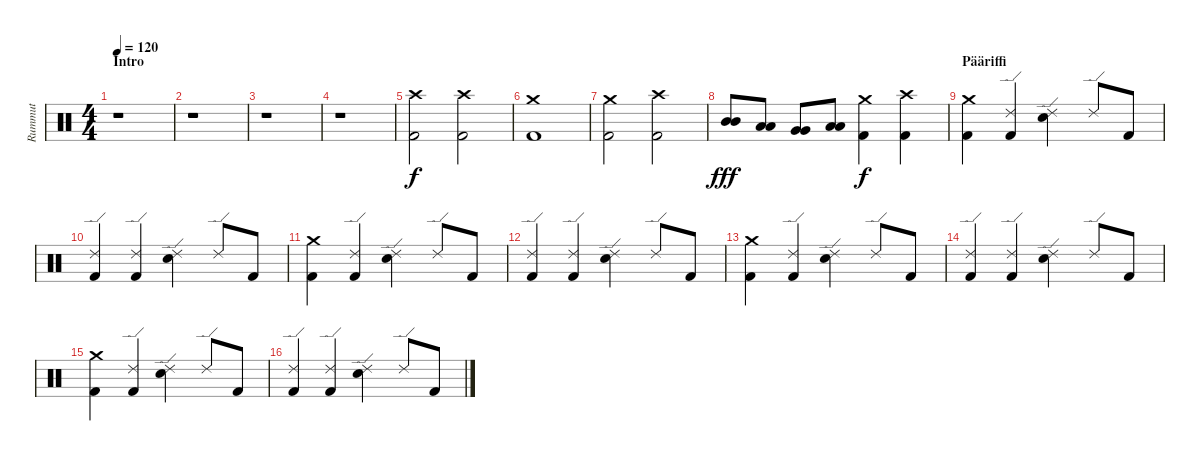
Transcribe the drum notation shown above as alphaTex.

\track ("Rummut" "Rummut") {instrument percussion}
\staff {score}
\articulation defaults
\ts (4 4)
\section ("" "Intro")
\tempo 120
\clef neutral
\ks c
r.1{dy f} |
r.1 |
r.1 |
r.1 |
("Kick (hit) 2" "Crash high (hit)").2 ("Kick (hit) 2" "Crash high (hit)").2 |
("Kick (hit) 2" "Crash medium (hit)").1 |
("Kick (hit) 2" "Crash medium (hit)").2 ("Kick (hit) 2" "Crash high (hit)").2 |
("Mid Tom (hit)" "Mid Tom (hit)").8{dy fff} ("Low Tom (hit)" "Low Tom (hit)").8 ("Very Low Tom (hit)" "Very Low Tom (hit)").8 ("Low Floor Tom (hit)" "Low Floor Tom (hit)").8 ("Kick (hit) 2" "Crash medium (hit)").4{dy f} ("Kick (hit) 2" "Crash high (hit)").4 |
\section ("" "Pääriffi")
("Kick (hit) 2" "Crash medium (hit)").4 ("Kick (hit) 2" "Ride (edge) 2").4 ("Ride (edge) 2" "Snare (hit) 2").4 "Ride (edge) 2".8 "Kick (hit) 2".8 |
("Kick (hit) 2" "Ride (edge) 2").4 ("Kick (hit) 2" "Ride (edge) 2").4 ("Ride (edge) 2" "Snare (hit) 2").4 "Ride (edge) 2".8 "Kick (hit) 2".8 |
("Kick (hit) 2" "Crash medium (hit)").4 ("Kick (hit) 2" "Ride (edge) 2").4 ("Ride (edge) 2" "Snare (hit) 2").4 "Ride (edge) 2".8 "Kick (hit) 2".8 |
("Kick (hit) 2" "Ride (edge) 2").4 ("Kick (hit) 2" "Ride (edge) 2").4 ("Ride (edge) 2" "Snare (hit) 2").4 "Ride (edge) 2".8 "Kick (hit) 2".8 |
("Kick (hit) 2" "Crash medium (hit)").4 ("Kick (hit) 2" "Ride (edge) 2").4 ("Ride (edge) 2" "Snare (hit) 2").4 "Ride (edge) 2".8 "Kick (hit) 2".8 |
("Kick (hit) 2" "Ride (edge) 2").4 ("Kick (hit) 2" "Ride (edge) 2").4 ("Ride (edge) 2" "Snare (hit) 2").4 "Ride (edge) 2".8 "Kick (hit) 2".8 |
("Kick (hit) 2" "Crash medium (hit)").4 ("Kick (hit) 2" "Ride (edge) 2").4 ("Ride (edge) 2" "Snare (hit) 2").4 "Ride (edge) 2".8 "Kick (hit) 2".8 |
("Kick (hit) 2" "Ride (edge) 2").4 ("Kick (hit) 2" "Ride (edge) 2").4 ("Ride (edge) 2" "Snare (hit) 2").4 "Ride (edge) 2".8 "Kick (hit) 2".8
